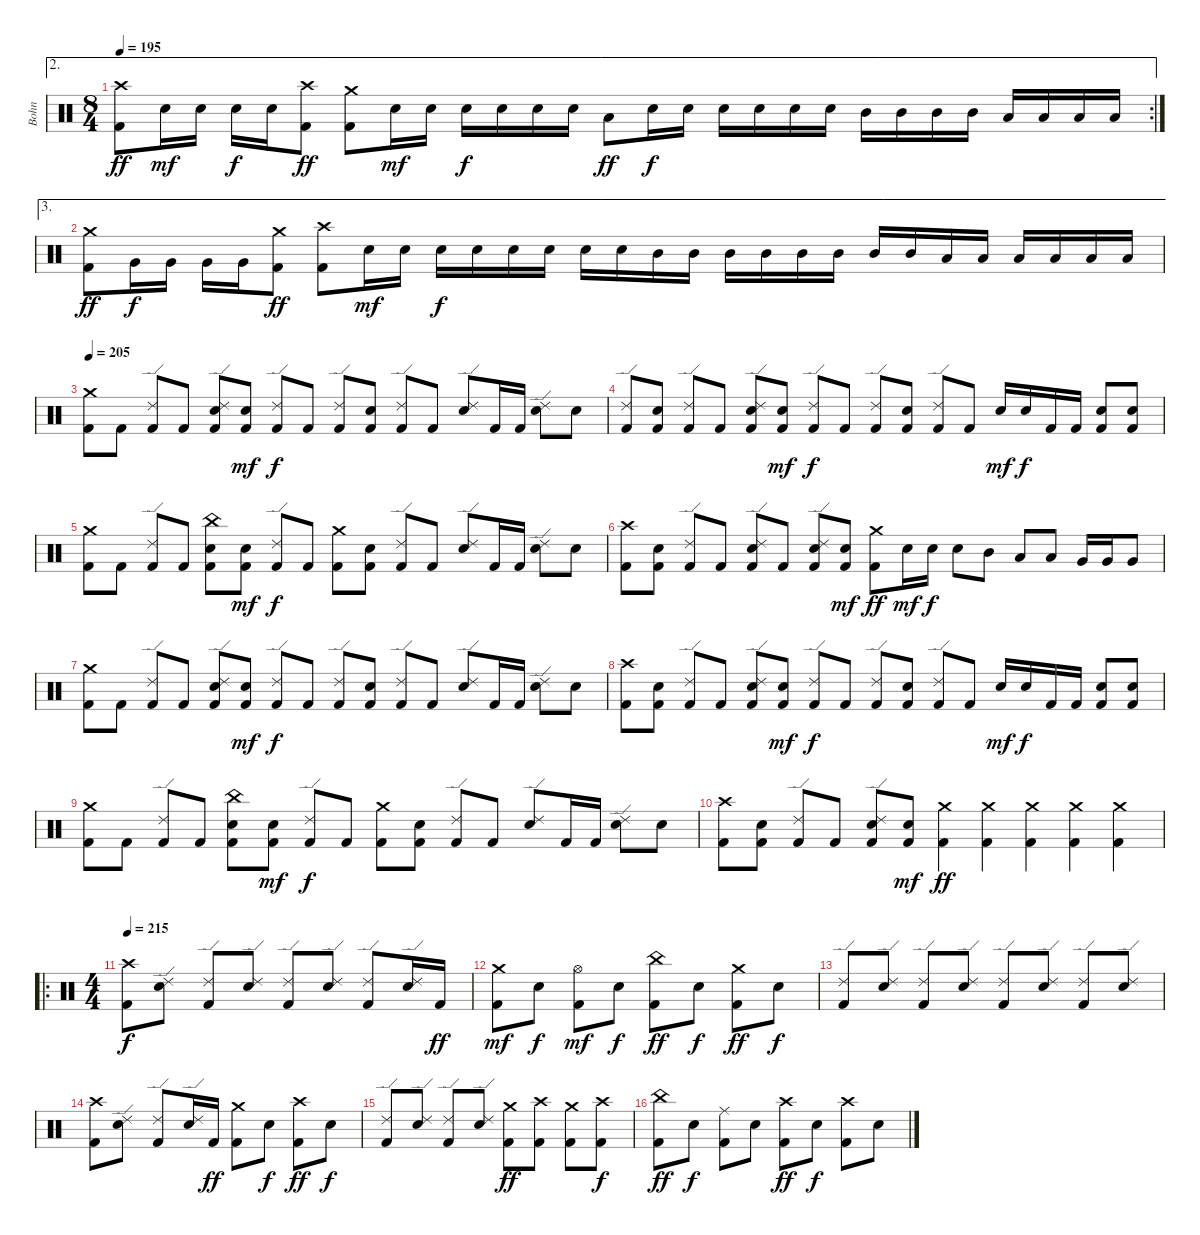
\track ("Bohn" "Bohn") {instrument percussion}
\staff {score}
\articulation defaults
\ae 2
\rc 2
\ts (8 4)
\tempo 195
\clef neutral
\ks c
("Crash high (hit)" "Kick (hit) 2").8{dy ff} "Electric Snare (hit)".16{dy mf} "Electric Snare (hit)".16 "Electric Snare (hit)".16{dy f} "Electric Snare (hit)".16 ("Crash high (hit)" "Kick (hit) 2").8{dy ff} ("Crash medium (hit)" "Kick (hit) 2").8 "Electric Snare (hit)".16{dy mf} "Electric Snare (hit)".16 "Electric Snare (hit)".16{dy f} "Electric Snare (hit)".16 "Electric Snare (hit)".16 "Electric Snare (hit)".16 "Low Tom (hit)".8{dy ff} "Electric Snare (hit)".16{dy f} "Electric Snare (hit)".16 "Electric Snare (hit)".16 "Electric Snare (hit)".16 "Electric Snare (hit)".16 "Electric Snare (hit)".16 "Mid Tom (hit)".16 "Mid Tom (hit)".16 "Mid Tom (hit)".16 "Mid Tom (hit)".16 "Low Tom (hit)".16 "Low Tom (hit)".16 "Low Tom (hit)".16 "Low Tom (hit)".16 |
\ae 3
("Crash medium (hit)" "Kick (hit) 2").8{dy ff} "Very Low Tom (hit)".16{dy f} "Very Low Tom (hit)".16 "Very Low Tom (hit)".16 "Very Low Tom (hit)".16 ("Crash medium (hit)" "Kick (hit) 2").8{dy ff} ("Crash high (hit)" "Kick (hit) 2").8 "Electric Snare (hit)".16{dy mf} "Electric Snare (hit)".16 "Electric Snare (hit)".16{dy f} "Electric Snare (hit)".16 "Electric Snare (hit)".16 "Electric Snare (hit)".16 "Electric Snare (hit)".16 "Electric Snare (hit)".16 "Mid Tom (hit)".16 "Mid Tom (hit)".16 "Mid Tom (hit)".16 "Mid Tom (hit)".16 "Mid Tom (hit)".16 "Mid Tom (hit)".16 "Mid Tom (hit)".16 "Mid Tom (hit)".16 "Low Tom (hit)".16 "Low Tom (hit)".16 "Low Tom (hit)".16 "Low Tom (hit)".16 "Low Tom (hit)".16 "Low Tom (hit)".16 |
\tempo 205
("Crash medium (hit)" "Kick (hit) 2").8 "Kick (hit) 2".8 ("Ride (edge) 2" "Kick (hit) 2").8 "Kick (hit) 2".8 ("Ride (edge) 2" "Electric Snare (hit)" "Kick (hit) 2").8 ("Electric Snare (hit)" "Kick (hit) 2").8{dy mf} ("Ride (edge) 2" "Kick (hit) 2").8{dy f} "Kick (hit) 2".8 ("Ride (edge) 2" "Kick (hit) 2").8 ("Electric Snare (hit)" "Kick (hit) 2").8 ("Ride (edge) 2" "Kick (hit) 2").8 "Kick (hit) 2".8 ("Ride (edge) 2" "Electric Snare (hit)").8 "Kick (hit) 2".16 "Kick (hit) 2".16 ("Ride (edge) 2" "Electric Snare (hit)").8 "Electric Snare (hit)".8 |
("Ride (edge) 2" "Kick (hit) 2").8 ("Electric Snare (hit)" "Kick (hit) 2").8 ("Ride (edge) 2" "Kick (hit) 2").8 "Kick (hit) 2".8 ("Ride (edge) 2" "Electric Snare (hit)" "Kick (hit) 2").8 ("Electric Snare (hit)" "Kick (hit) 2").8{dy mf} ("Ride (edge) 2" "Kick (hit) 2").8{dy f} "Kick (hit) 2".8 ("Ride (edge) 2" "Kick (hit) 2").8 ("Electric Snare (hit)" "Kick (hit) 2").8 ("Ride (edge) 2" "Kick (hit) 2").8 "Kick (hit) 2".8 "Electric Snare (hit)".16{dy mf} "Electric Snare (hit)".16{dy f} "Kick (hit) 2".16 "Kick (hit) 2".16 ("Electric Snare (hit)" "Kick (hit) 2").8 ("Electric Snare (hit)" "Kick (hit) 2").8 |
("Crash medium (hit)" "Kick (hit) 2").8 "Kick (hit) 2".8 ("Ride (edge) 2" "Kick (hit) 2").8 "Kick (hit) 2".8 ("China (hit)" "Electric Snare (hit)" "Kick (hit) 2").8 ("Electric Snare (hit)" "Kick (hit) 2").8{dy mf} ("Ride (edge) 2" "Kick (hit) 2").8{dy f} "Kick (hit) 2".8 ("Crash medium (hit)" "Kick (hit) 2").8 ("Electric Snare (hit)" "Kick (hit) 2").8 ("Ride (edge) 2" "Kick (hit) 2").8 "Kick (hit) 2".8 ("Ride (edge) 2" "Electric Snare (hit)").8 "Kick (hit) 2".16 "Kick (hit) 2".16 ("Ride (edge) 2" "Electric Snare (hit)").8 "Electric Snare (hit)".8 |
("Crash high (hit)" "Kick (hit) 2").8 ("Electric Snare (hit)" "Kick (hit) 2").8 ("Ride (edge) 2" "Kick (hit) 2").8 "Kick (hit) 2".8 ("Ride (edge) 2" "Electric Snare (hit)" "Kick (hit) 2").8 "Kick (hit) 2".8 ("Ride (edge) 2" "Electric Snare (hit)" "Kick (hit) 2").8 ("Electric Snare (hit)" "Kick (hit) 2").8{dy mf} ("Crash medium (hit)" "Kick (hit) 2").8{dy ff} "Electric Snare (hit)".16{dy mf} "Electric Snare (hit)".16{dy f} "Electric Snare (hit)".8 "Mid Tom (hit)".8 "Low Tom (hit)".8 "Low Tom (hit)".8 "Very Low Tom (hit)".16 "Very Low Tom (hit)".16 "Very Low Tom (hit)".8 |
("Crash medium (hit)" "Kick (hit) 2").8 "Kick (hit) 2".8 ("Ride (edge) 2" "Kick (hit) 2").8 "Kick (hit) 2".8 ("Ride (edge) 2" "Electric Snare (hit)" "Kick (hit) 2").8 ("Electric Snare (hit)" "Kick (hit) 2").8{dy mf} ("Ride (edge) 2" "Kick (hit) 2").8{dy f} "Kick (hit) 2".8 ("Ride (edge) 2" "Kick (hit) 2").8 ("Electric Snare (hit)" "Kick (hit) 2").8 ("Ride (edge) 2" "Kick (hit) 2").8 "Kick (hit) 2".8 ("Ride (edge) 2" "Electric Snare (hit)").8 "Kick (hit) 2".16 "Kick (hit) 2".16 ("Ride (edge) 2" "Electric Snare (hit)").8 "Electric Snare (hit)".8 |
("Crash high (hit)" "Kick (hit) 2").8 ("Electric Snare (hit)" "Kick (hit) 2").8 ("Ride (edge) 2" "Kick (hit) 2").8 "Kick (hit) 2".8 ("Ride (edge) 2" "Electric Snare (hit)" "Kick (hit) 2").8 ("Electric Snare (hit)" "Kick (hit) 2").8{dy mf} ("Ride (edge) 2" "Kick (hit) 2").8{dy f} "Kick (hit) 2".8 ("Ride (edge) 2" "Kick (hit) 2").8 ("Electric Snare (hit)" "Kick (hit) 2").8 ("Ride (edge) 2" "Kick (hit) 2").8 "Kick (hit) 2".8 "Electric Snare (hit)".16{dy mf} "Electric Snare (hit)".16{dy f} "Kick (hit) 2".16 "Kick (hit) 2".16 ("Electric Snare (hit)" "Kick (hit) 2").8 ("Electric Snare (hit)" "Kick (hit) 2").8 |
("Crash medium (hit)" "Kick (hit) 2").8 "Kick (hit) 2".8 ("Ride (edge) 2" "Kick (hit) 2").8 "Kick (hit) 2".8 ("China (hit)" "Electric Snare (hit)" "Kick (hit) 2").8 ("Electric Snare (hit)" "Kick (hit) 2").8{dy mf} ("Ride (edge) 2" "Kick (hit) 2").8{dy f} "Kick (hit) 2".8 ("Crash medium (hit)" "Kick (hit) 2").8 ("Electric Snare (hit)" "Kick (hit) 2").8 ("Ride (edge) 2" "Kick (hit) 2").8 "Kick (hit) 2".8 ("Ride (edge) 2" "Electric Snare (hit)").8 "Kick (hit) 2".16 "Kick (hit) 2".16 ("Ride (edge) 2" "Electric Snare (hit)").8 "Electric Snare (hit)".8 |
("Crash high (hit)" "Kick (hit) 2").8 ("Electric Snare (hit)" "Kick (hit) 2").8 ("Ride (edge) 2" "Kick (hit) 2").8 "Kick (hit) 2".8 ("Ride (edge) 2" "Electric Snare (hit)" "Kick (hit) 2").8 ("Electric Snare (hit)" "Kick (hit) 2").8{dy mf} ("Crash medium (hit)" "Kick (hit) 2").4{dy ff} ("Crash medium (hit)" "Kick (hit) 2").4 ("Crash medium (hit)" "Kick (hit) 2").4 ("Crash medium (hit)" "Kick (hit) 2").4 ("Crash medium (hit)" "Kick (hit) 2").4 |
\ro
\ts (4 4)
\tempo 215
("Crash high (hit)" "Kick (hit) 2").8{dy f} ("Ride (edge) 2" "Electric Snare (hit)").8 ("Ride (edge) 2" "Kick (hit) 2").8 ("Ride (edge) 2" "Electric Snare (hit)").8 ("Ride (edge) 2" "Kick (hit) 2").8 ("Ride (edge) 2" "Electric Snare (hit)").8 ("Ride (edge) 2" "Kick (hit) 2").8 ("Ride (edge) 2" "Electric Snare (hit)").16 "Kick (hit) 2".16{dy ff} |
("Crash medium (hit)" "Kick (hit) 2").8{dy mf} "Electric Snare (hit)".8{dy f} ("Hi-Hat (open)" "Kick (hit) 2").8{dy mf} "Electric Snare (hit)".8{dy f} ("China (hit)" "Kick (hit) 2").8{dy ff} "Electric Snare (hit)".8{dy f} ("Crash medium (hit)" "Kick (hit) 2").8{dy ff} "Electric Snare (hit)".8{dy f} |
("Ride (edge) 2" "Kick (hit) 2").8 ("Ride (edge) 2" "Electric Snare (hit)").8 ("Ride (edge) 2" "Kick (hit) 2").8 ("Ride (edge) 2" "Electric Snare (hit)").8 ("Ride (edge) 2" "Kick (hit) 2").8 ("Ride (edge) 2" "Electric Snare (hit)").8 ("Ride (edge) 2" "Kick (hit) 2").8 ("Ride (edge) 2" "Electric Snare (hit)").8 |
("Crash high (hit)" "Kick (hit) 2").8 ("Ride (edge) 2" "Electric Snare (hit)").8 ("Ride (edge) 2" "Kick (hit) 2").8 ("Ride (edge) 2" "Electric Snare (hit)").16 "Kick (hit) 2".16{dy ff} ("Crash medium (hit)" "Kick (hit) 2").8 "Electric Snare (hit)".8{dy f} ("Crash high (hit)" "Kick (hit) 2").8{dy ff} "Electric Snare (hit)".8{dy f} |
("Ride (edge) 2" "Kick (hit) 2").8 ("Ride (edge) 2" "Electric Snare (hit)").8 ("Ride (edge) 2" "Kick (hit) 2").8 ("Ride (edge) 2" "Electric Snare (hit)").8 ("Crash medium (hit)" "Kick (hit) 2").8{dy ff} ("Crash high (hit)" "Kick (hit) 2").8 ("Crash medium (hit)" "Kick (hit) 2").8 ("Crash high (hit)" "Kick (hit) 2").8{dy f} |
("China (hit)" "Kick (hit) 2").8{dy ff} "Electric Snare (hit)".8{dy f} ("Ride (middle)" "Kick (hit) 2").8 "Electric Snare (hit)".8 ("Crash high (hit)" "Kick (hit) 2").8{dy ff} "Electric Snare (hit)".8{dy f} ("Crash high (hit)" "Kick (hit) 2").8 "Electric Snare (hit)".8
